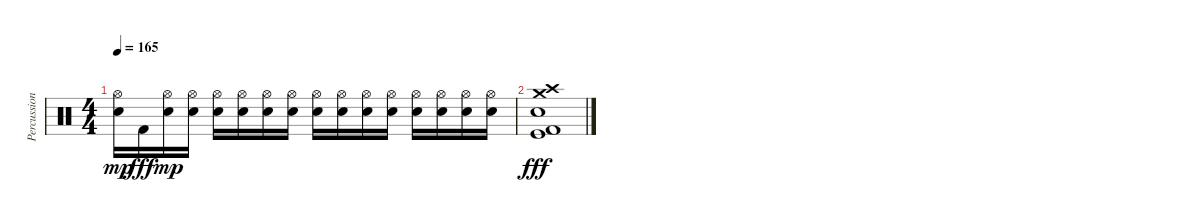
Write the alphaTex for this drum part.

\track ("Percussions" "Percussion") {instrument percussion}
\staff {score}
\articulation defaults
\ts (4 4)
\tempo 165
\clef neutral
\ks c
("Hi-Hat (open)" "Electric Snare (hit)").16{dy mp} "Kick (hit) 2".16{dy fff} ("Hi-Hat (open)" "Electric Snare (hit)").16{dy mp} ("Hi-Hat (open)" "Electric Snare (hit)").16 ("Hi-Hat (open)" "Electric Snare (hit)").16 ("Hi-Hat (open)" "Electric Snare (hit)").16 ("Hi-Hat (open)" "Electric Snare (hit)").16 ("Hi-Hat (open)" "Electric Snare (hit)").16 ("Hi-Hat (open)" "Electric Snare (hit)").16 ("Hi-Hat (open)" "Electric Snare (hit)").16 ("Hi-Hat (open)" "Electric Snare (hit)").16 ("Hi-Hat (open)" "Electric Snare (hit)").16 ("Hi-Hat (open)" "Electric Snare (hit)").16 ("Hi-Hat (open)" "Electric Snare (hit)").16 ("Hi-Hat (open)" "Electric Snare (hit)").16 ("Hi-Hat (open)" "Electric Snare (hit)").16 |
("Crash high (hit)" "Crash medium (hit)" "Electric Snare (hit)" "Kick (hit)" "Kick (hit) 2").1{dy fff}
